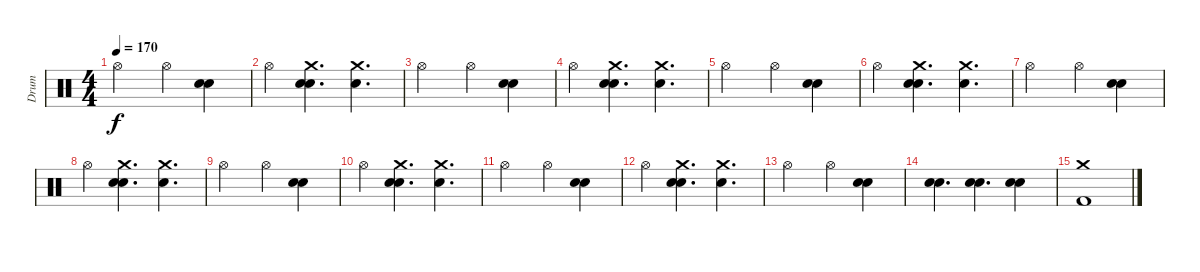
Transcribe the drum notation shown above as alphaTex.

\track ("Drum" "Drum") {instrument percussion}
\staff
\articulation defaults
\ts (4 4)
\tempo 170
\clef neutral
\ks c "Hi-Hat (open)".2{dy f} "Hi-Hat (open)".4
("Electric Snare (hit)" "Snare (hit) 2").4 |
"Hi-Hat (open)".4 ("Crash medium (hit)" "Electric Snare (hit)" "Snare (hit) 2").4{d} ("Crash medium (hit)" "Electric Snare (hit)").4{d} |
"Hi-Hat (open)".2 "Hi-Hat (open)".4 ("Electric Snare (hit)" "Snare (hit) 2").4 |
"Hi-Hat (open)".4 ("Crash medium (hit)" "Electric Snare (hit)" "Snare (hit) 2").4{d} ("Crash medium (hit)" "Electric Snare (hit)").4{d} |
"Hi-Hat (open)".2 "Hi-Hat (open)".4 ("Electric Snare (hit)" "Snare (hit) 2").4 |
"Hi-Hat (open)".4 ("Crash medium (hit)" "Electric Snare (hit)" "Snare (hit) 2").4{d} ("Crash medium (hit)" "Electric Snare (hit)").4{d} |
"Hi-Hat (open)".2 "Hi-Hat (open)".4 ("Electric Snare (hit)" "Snare (hit) 2").4 |
"Hi-Hat (open)".4 ("Crash medium (hit)" "Electric Snare (hit)" "Snare (hit) 2").4{d} ("Crash medium (hit)" "Electric Snare (hit)").4{d} |
"Hi-Hat (open)".2 "Hi-Hat (open)".4 ("Electric Snare (hit)" "Snare (hit) 2").4 |
"Hi-Hat (open)".4 ("Crash medium (hit)" "Electric Snare (hit)" "Snare (hit) 2").4{d} ("Crash medium (hit)" "Electric Snare (hit)").4{d} |
"Hi-Hat (open)".2 "Hi-Hat (open)".4 ("Electric Snare (hit)" "Snare (hit) 2").4 |
"Hi-Hat (open)".4 ("Crash medium (hit)" "Electric Snare (hit)" "Snare (hit) 2").4{d} ("Crash medium (hit)" "Electric Snare (hit)").4{d} |
"Hi-Hat (open)".2 "Hi-Hat (open)".4 ("Electric Snare (hit)" "Snare (hit) 2").4 |
("Electric Snare (hit)" "Snare (hit) 2").4{d} ("Electric Snare (hit)" "Snare (hit) 2").4{d} ("Electric Snare (hit)" "Snare (hit) 2").4 |
("Crash medium (hit)" "Kick (hit) 2").1
